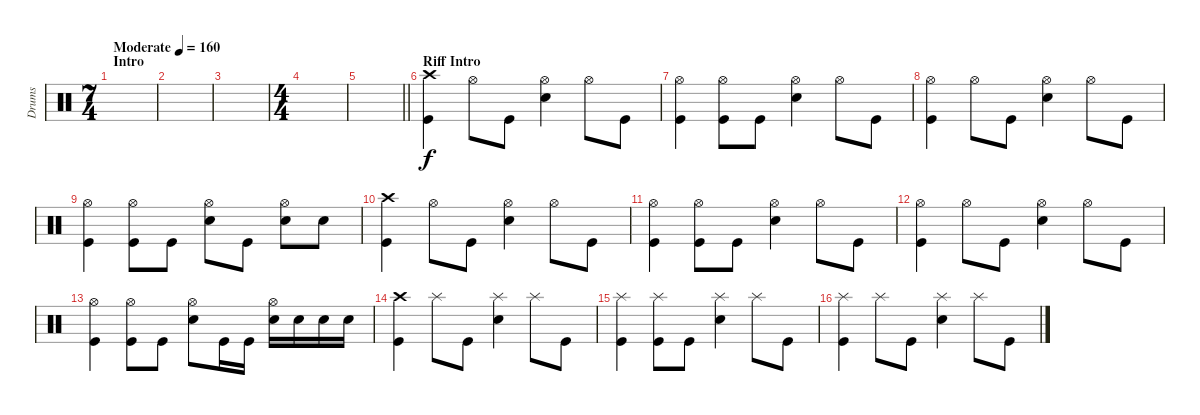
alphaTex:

\track ("Drums" "Drums") {instrument percussion}
\staff {score}
\articulation defaults
\ts (7 4)
\section ("" "Intro")
\tempo (160 "Moderate")
\clef neutral
\ks c
|
|
|
\ts (4 4)
|
\barLineRight lightlight
|
\section ("" "Riff Intro")
("Crash high (hit)" "Kick (hit)").4 "Hi-Hat (open)".8 "Kick (hit)".8 ("Hi-Hat (open)" "Snare (hit) 2").4 "Hi-Hat (open)".8 "Kick (hit)".8 |
("Hi-Hat (open)" "Kick (hit)").4 ("Hi-Hat (open)" "Kick (hit)").8 "Kick (hit)".8 ("Hi-Hat (open)" "Snare (hit) 2").4 "Hi-Hat (open)".8 "Kick (hit)".8 |
("Hi-Hat (open)" "Kick (hit)").4 "Hi-Hat (open)".8 "Kick (hit)".8 ("Hi-Hat (open)" "Snare (hit) 2").4 "Hi-Hat (open)".8 "Kick (hit)".8 |
("Hi-Hat (open)" "Kick (hit)").4 ("Hi-Hat (open)" "Kick (hit)").8 "Kick (hit)".8 ("Hi-Hat (open)" "Snare (hit) 2").8 "Kick (hit)".8 ("Hi-Hat (open)" "Snare (hit) 2").8 "Snare (hit) 2".8 |
("Crash high (hit)" "Kick (hit)").4 "Hi-Hat (open)".8 "Kick (hit)".8 ("Hi-Hat (open)" "Snare (hit) 2").4 "Hi-Hat (open)".8 "Kick (hit)".8 |
("Hi-Hat (open)" "Kick (hit)").4 ("Hi-Hat (open)" "Kick (hit)").8 "Kick (hit)".8 ("Hi-Hat (open)" "Snare (hit) 2").4 "Hi-Hat (open)".8 "Kick (hit)".8 |
("Hi-Hat (open)" "Kick (hit)").4 "Hi-Hat (open)".8 "Kick (hit)".8 ("Hi-Hat (open)" "Snare (hit) 2").4 "Hi-Hat (open)".8 "Kick (hit)".8 |
("Hi-Hat (open)" "Kick (hit)").4 ("Hi-Hat (open)" "Kick (hit)").8 "Kick (hit)".8 ("Hi-Hat (open)" "Snare (hit) 2").8 "Kick (hit)".16 "Kick (hit)".16 ("Hi-Hat (open)" "Snare (hit) 2").16 "Snare (hit) 2".16 "Snare (hit) 2".16 "Snare (hit) 2".16 |
("Crash high (hit)" "Kick (hit)").4 "Splash (hit)".8 "Kick (hit)".8 ("Splash (hit)" "Snare (hit) 2").4 "Splash (hit)".8 "Kick (hit)".8 |
("Splash (hit)" "Kick (hit)").4 ("Splash (hit)" "Kick (hit)").8 "Kick (hit)".8 ("Splash (hit)" "Snare (hit) 2").4 "Splash (hit)".8 "Kick (hit)".8 |
("Splash (hit)" "Kick (hit)").4 "Splash (hit)".8 "Kick (hit)".8 ("Splash (hit)" "Snare (hit) 2").4 "Splash (hit)".8 "Kick (hit)".8
